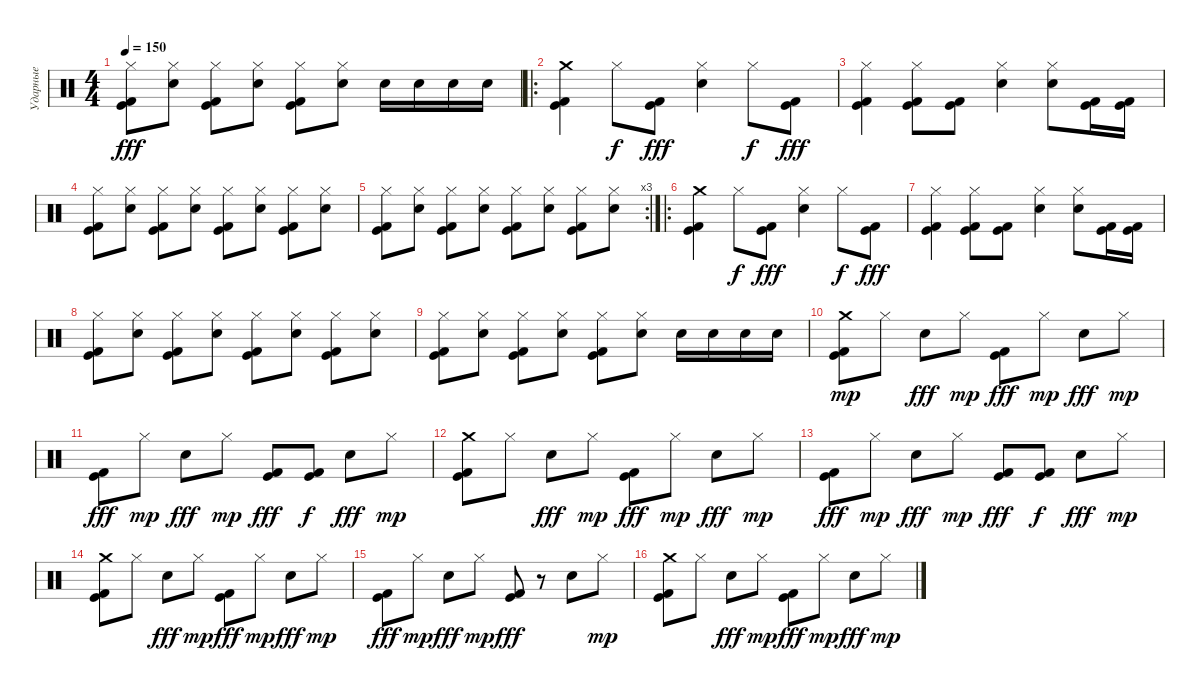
\track ("Ударные" "Ударные") {instrument percussion}
\staff {score}
\articulation defaults
\ts (4 4)
\tempo 150
\clef neutral
\ks c
("Kick (hit)" "Kick (hit) 2" "Hi-Hat (closed)").8{dy fff} ("Snare (hit) 2" "Hi-Hat (closed)").8 ("Kick (hit)" "Kick (hit) 2" "Hi-Hat (closed)").8 ("Snare (hit) 2" "Hi-Hat (closed)").8 ("Kick (hit)" "Kick (hit) 2" "Hi-Hat (closed)").8 ("Snare (hit) 2" "Hi-Hat (closed)").8 "Snare (hit) 2".16 "Snare (hit) 2".16 "Snare (hit) 2".16 "Snare (hit) 2".16 |
\ro
("Crash medium (hit)" "Kick (hit)" "Kick (hit) 2").4 "Hi-Hat (closed)".8{dy f} ("Kick (hit)" "Kick (hit) 2").8{dy fff} ("Hi-Hat (closed)" "Snare (hit) 2").4 "Hi-Hat (closed)".8{dy f} ("Kick (hit)" "Kick (hit) 2").8{dy fff} |
("Hi-Hat (closed)" "Kick (hit)" "Kick (hit) 2").4 ("Hi-Hat (closed)" "Kick (hit)" "Kick (hit) 2").8 ("Kick (hit)" "Kick (hit) 2").8 ("Hi-Hat (closed)" "Snare (hit) 2").4 ("Hi-Hat (closed)" "Snare (hit) 2").8 ("Kick (hit)" "Kick (hit) 2").16 ("Kick (hit)" "Kick (hit) 2").16 |
("Kick (hit)" "Kick (hit) 2" "Hi-Hat (closed)").8 ("Snare (hit) 2" "Hi-Hat (closed)").8 ("Kick (hit)" "Kick (hit) 2" "Hi-Hat (closed)").8 ("Snare (hit) 2" "Hi-Hat (closed)").8 ("Kick (hit)" "Kick (hit) 2" "Hi-Hat (closed)").8 ("Snare (hit) 2" "Hi-Hat (closed)").8 ("Kick (hit)" "Kick (hit) 2" "Hi-Hat (closed)").8 ("Snare (hit) 2" "Hi-Hat (closed)").8 |
\rc 3
("Kick (hit)" "Kick (hit) 2" "Hi-Hat (closed)").8 ("Snare (hit) 2" "Hi-Hat (closed)").8 ("Kick (hit)" "Kick (hit) 2" "Hi-Hat (closed)").8 ("Snare (hit) 2" "Hi-Hat (closed)").8 ("Kick (hit)" "Kick (hit) 2" "Hi-Hat (closed)").8 ("Snare (hit) 2" "Hi-Hat (closed)").8 ("Kick (hit)" "Kick (hit) 2" "Hi-Hat (closed)").8 ("Snare (hit) 2" "Hi-Hat (closed)").8 |
\ro
("Crash medium (hit)" "Kick (hit)" "Kick (hit) 2").4 "Hi-Hat (closed)".8{dy f} ("Kick (hit)" "Kick (hit) 2").8{dy fff} ("Hi-Hat (closed)" "Snare (hit) 2").4 "Hi-Hat (closed)".8{dy f} ("Kick (hit)" "Kick (hit) 2").8{dy fff} |
("Hi-Hat (closed)" "Kick (hit)" "Kick (hit) 2").4 ("Hi-Hat (closed)" "Kick (hit)" "Kick (hit) 2").8 ("Kick (hit)" "Kick (hit) 2").8 ("Hi-Hat (closed)" "Snare (hit) 2").4 ("Hi-Hat (closed)" "Snare (hit) 2").8 ("Kick (hit)" "Kick (hit) 2").16 ("Kick (hit)" "Kick (hit) 2").16 |
("Kick (hit)" "Kick (hit) 2" "Hi-Hat (closed)").8 ("Snare (hit) 2" "Hi-Hat (closed)").8 ("Kick (hit)" "Kick (hit) 2" "Hi-Hat (closed)").8 ("Snare (hit) 2" "Hi-Hat (closed)").8 ("Kick (hit)" "Kick (hit) 2" "Hi-Hat (closed)").8 ("Snare (hit) 2" "Hi-Hat (closed)").8 ("Kick (hit)" "Kick (hit) 2" "Hi-Hat (closed)").8 ("Snare (hit) 2" "Hi-Hat (closed)").8 |
("Kick (hit)" "Kick (hit) 2" "Hi-Hat (closed)").8 ("Snare (hit) 2" "Hi-Hat (closed)").8 ("Kick (hit)" "Kick (hit) 2" "Hi-Hat (closed)").8 ("Snare (hit) 2" "Hi-Hat (closed)").8 ("Kick (hit)" "Kick (hit) 2" "Hi-Hat (closed)").8 ("Snare (hit) 2" "Hi-Hat (closed)").8 "Snare (hit) 2".16 "Snare (hit) 2".16 "Snare (hit) 2".16 "Snare (hit) 2".16 |
("Kick (hit) 2" "Kick (hit)" "Crash medium (hit)").8{dy mp} "Hi-Hat (closed)".8 "Snare (hit) 2".8{dy fff} "Hi-Hat (closed)".8{dy mp} ("Kick (hit) 2" "Kick (hit)").8{dy fff} "Hi-Hat (closed)".8{dy mp} "Snare (hit) 2".8{dy fff} "Hi-Hat (closed)".8{dy mp} |
("Kick (hit) 2" "Kick (hit)").8{dy fff} "Hi-Hat (closed)".8{dy mp} "Snare (hit) 2".8{dy fff} "Hi-Hat (closed)".8{dy mp} ("Kick (hit) 2" "Kick (hit)").8{dy fff} ("Kick (hit) 2" "Kick (hit)").8{dy f} "Snare (hit) 2".8{dy fff} "Hi-Hat (closed)".8{dy mp} |
("Kick (hit) 2" "Kick (hit)" "Crash medium (hit)").8 "Hi-Hat (closed)".8 "Snare (hit) 2".8{dy fff} "Hi-Hat (closed)".8{dy mp} ("Kick (hit) 2" "Kick (hit)").8{dy fff} "Hi-Hat (closed)".8{dy mp} "Snare (hit) 2".8{dy fff} "Hi-Hat (closed)".8{dy mp} |
("Kick (hit) 2" "Kick (hit)").8{dy fff} "Hi-Hat (closed)".8{dy mp} "Snare (hit) 2".8{dy fff} "Hi-Hat (closed)".8{dy mp} ("Kick (hit) 2" "Kick (hit)").8{dy fff} ("Kick (hit) 2" "Kick (hit)").8{dy f} "Snare (hit) 2".8{dy fff} "Hi-Hat (closed)".8{dy mp} |
("Kick (hit) 2" "Kick (hit)" "Crash medium (hit)").8 "Hi-Hat (closed)".8 "Snare (hit) 2".8{dy fff} "Hi-Hat (closed)".8{dy mp} ("Kick (hit) 2" "Kick (hit)").8{dy fff} "Hi-Hat (closed)".8{dy mp} "Snare (hit) 2".8{dy fff} "Hi-Hat (closed)".8{dy mp} |
("Kick (hit) 2" "Kick (hit)").8{dy fff} "Hi-Hat (closed)".8{dy mp} "Snare (hit) 2".8{dy fff} "Hi-Hat (closed)".8{dy mp} ("Kick (hit) 2" "Kick (hit)").8{dy fff} r.8 "Snare (hit) 2".8 "Hi-Hat (closed)".8{dy mp} |
("Kick (hit) 2" "Kick (hit)" "Crash medium (hit)").8 "Hi-Hat (closed)".8 "Snare (hit) 2".8{dy fff} "Hi-Hat (closed)".8{dy mp} ("Kick (hit) 2" "Kick (hit)").8{dy fff} "Hi-Hat (closed)".8{dy mp} "Snare (hit) 2".8{dy fff} "Hi-Hat (closed)".8{dy mp}
